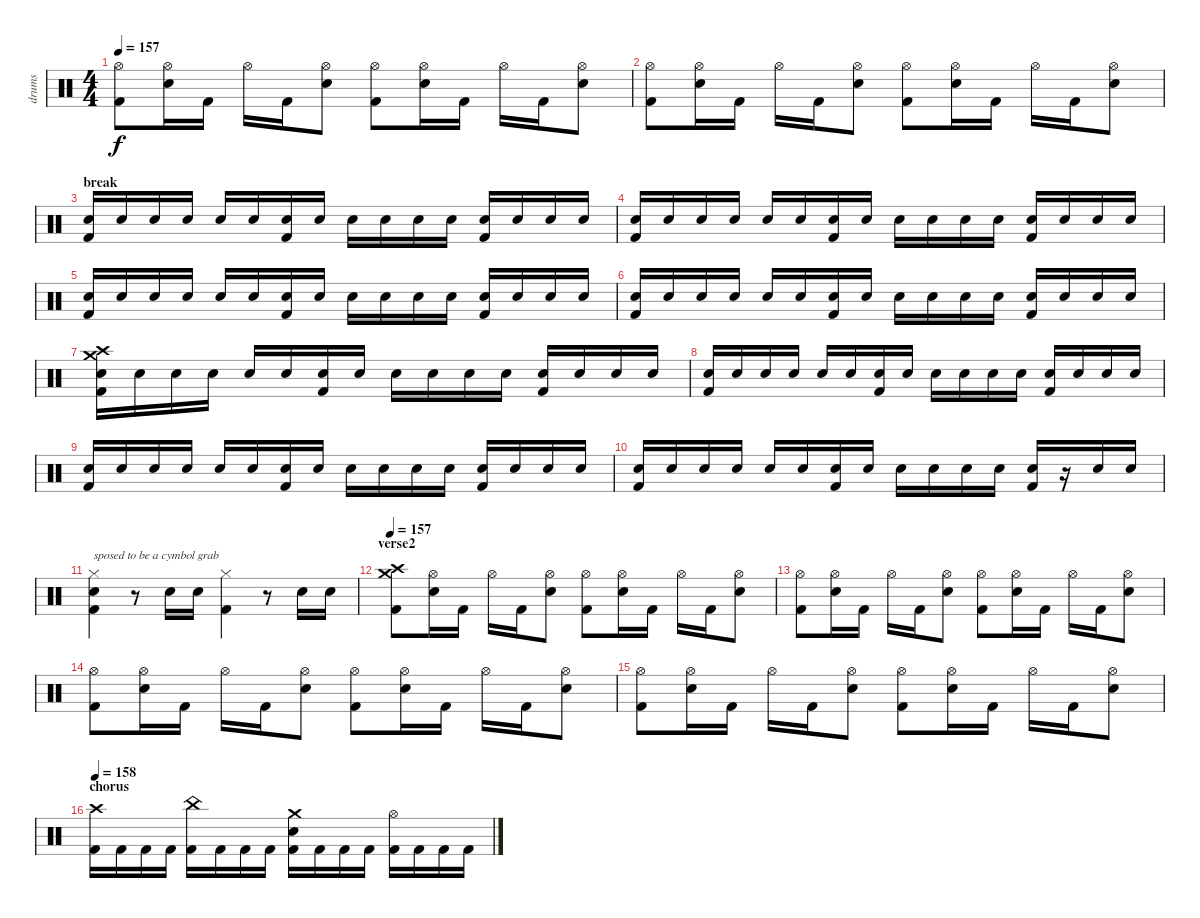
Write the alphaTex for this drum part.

\track ("drums" "drums") {instrument percussion}
\staff {score}
\articulation defaults
\ts (4 4)
\tempo 157
\clef neutral
\ks c
("Hi-Hat (open)" "Kick (hit) 2").8{dy f} ("Hi-Hat (open)" "Electric Snare (hit)").16 "Kick (hit) 2".16 "Hi-Hat (open)".16 "Kick (hit) 2".16 ("Hi-Hat (open)" "Electric Snare (hit)").8 ("Hi-Hat (open)" "Kick (hit) 2").8 ("Hi-Hat (open)" "Electric Snare (hit)").16 "Kick (hit) 2".16 "Hi-Hat (open)".16 "Kick (hit) 2".16 ("Hi-Hat (open)" "Electric Snare (hit)").8 |
("Hi-Hat (open)" "Kick (hit) 2").8 ("Hi-Hat (open)" "Electric Snare (hit)").16 "Kick (hit) 2".16 "Hi-Hat (open)".16 "Kick (hit) 2".16 ("Hi-Hat (open)" "Electric Snare (hit)").8 ("Hi-Hat (open)" "Kick (hit) 2").8 ("Hi-Hat (open)" "Electric Snare (hit)").16 "Kick (hit) 2".16 "Hi-Hat (open)".16 "Kick (hit) 2".16 ("Hi-Hat (open)" "Electric Snare (hit)").8 |
\section ("" "break")
("Electric Snare (hit)" "Kick (hit) 2").16 "Electric Snare (hit)".16 "Electric Snare (hit)".16 "Electric Snare (hit)".16 "Electric Snare (hit)".16 "Electric Snare (hit)".16 ("Electric Snare (hit)" "Kick (hit) 2").16 "Electric Snare (hit)".16 "Electric Snare (hit)".16 "Electric Snare (hit)".16 "Electric Snare (hit)".16 "Electric Snare (hit)".16 ("Electric Snare (hit)" "Kick (hit) 2").16 "Electric Snare (hit)".16 "Electric Snare (hit)".16 "Electric Snare (hit)".16 |
("Electric Snare (hit)" "Kick (hit) 2").16 "Electric Snare (hit)".16 "Electric Snare (hit)".16 "Electric Snare (hit)".16 "Electric Snare (hit)".16 "Electric Snare (hit)".16 ("Electric Snare (hit)" "Kick (hit) 2").16 "Electric Snare (hit)".16 "Electric Snare (hit)".16 "Electric Snare (hit)".16 "Electric Snare (hit)".16 "Electric Snare (hit)".16 ("Electric Snare (hit)" "Kick (hit) 2").16 "Electric Snare (hit)".16 "Electric Snare (hit)".16 "Electric Snare (hit)".16 |
("Electric Snare (hit)" "Kick (hit) 2").16 "Electric Snare (hit)".16 "Electric Snare (hit)".16 "Electric Snare (hit)".16 "Electric Snare (hit)".16 "Electric Snare (hit)".16 ("Electric Snare (hit)" "Kick (hit) 2").16 "Electric Snare (hit)".16 "Electric Snare (hit)".16 "Electric Snare (hit)".16 "Electric Snare (hit)".16 "Electric Snare (hit)".16 ("Electric Snare (hit)" "Kick (hit) 2").16 "Electric Snare (hit)".16 "Electric Snare (hit)".16 "Electric Snare (hit)".16 |
("Electric Snare (hit)" "Kick (hit) 2").16 "Electric Snare (hit)".16 "Electric Snare (hit)".16 "Electric Snare (hit)".16 "Electric Snare (hit)".16 "Electric Snare (hit)".16 ("Electric Snare (hit)" "Kick (hit) 2").16 "Electric Snare (hit)".16 "Electric Snare (hit)".16 "Electric Snare (hit)".16 "Electric Snare (hit)".16 "Electric Snare (hit)".16 ("Electric Snare (hit)" "Kick (hit) 2").16 "Electric Snare (hit)".16 "Electric Snare (hit)".16 "Electric Snare (hit)".16 |
("Crash high (hit)" "Crash medium (hit)" "Electric Snare (hit)" "Kick (hit) 2").16 "Electric Snare (hit)".16 "Electric Snare (hit)".16 "Electric Snare (hit)".16 "Electric Snare (hit)".16 "Electric Snare (hit)".16 ("Electric Snare (hit)" "Kick (hit) 2").16 "Electric Snare (hit)".16 "Electric Snare (hit)".16 "Electric Snare (hit)".16 "Electric Snare (hit)".16 "Electric Snare (hit)".16 ("Electric Snare (hit)" "Kick (hit) 2").16 "Electric Snare (hit)".16 "Electric Snare (hit)".16 "Electric Snare (hit)".16 |
("Electric Snare (hit)" "Kick (hit) 2").16 "Electric Snare (hit)".16 "Electric Snare (hit)".16 "Electric Snare (hit)".16 "Electric Snare (hit)".16 "Electric Snare (hit)".16 ("Electric Snare (hit)" "Kick (hit) 2").16 "Electric Snare (hit)".16 "Electric Snare (hit)".16 "Electric Snare (hit)".16 "Electric Snare (hit)".16 "Electric Snare (hit)".16 ("Electric Snare (hit)" "Kick (hit) 2").16 "Electric Snare (hit)".16 "Electric Snare (hit)".16 "Electric Snare (hit)".16 |
("Electric Snare (hit)" "Kick (hit) 2").16 "Electric Snare (hit)".16 "Electric Snare (hit)".16 "Electric Snare (hit)".16 "Electric Snare (hit)".16 "Electric Snare (hit)".16 ("Electric Snare (hit)" "Kick (hit) 2").16 "Electric Snare (hit)".16 "Electric Snare (hit)".16 "Electric Snare (hit)".16 "Electric Snare (hit)".16 "Electric Snare (hit)".16 ("Electric Snare (hit)" "Kick (hit) 2").16 "Electric Snare (hit)".16 "Electric Snare (hit)".16 "Electric Snare (hit)".16 |
("Electric Snare (hit)" "Kick (hit) 2").16 "Electric Snare (hit)".16 "Electric Snare (hit)".16 "Electric Snare (hit)".16 "Electric Snare (hit)".16 "Electric Snare (hit)".16 ("Electric Snare (hit)" "Kick (hit) 2").16 "Electric Snare (hit)".16 "Electric Snare (hit)".16 "Electric Snare (hit)".16 "Electric Snare (hit)".16 "Electric Snare (hit)".16 ("Electric Snare (hit)" "Kick (hit) 2").16 r.16 "Electric Snare (hit)".16 "Electric Snare (hit)".16 |
("Snare (hit)"{x} "Hi-Hat (closed)" "Kick (hit) 2").4{txt "sposed to be a cymbol grab"} r.8 "Electric Snare (hit)".16 "Electric Snare (hit)".16 ("Hi-Hat (closed)" "Kick (hit) 2").4 r.8 "Electric Snare (hit)".16 "Electric Snare (hit)".16 |
\section ("" "verse2")
\tempo 157
("Crash high (hit)" "Crash medium (hit)" "Kick (hit) 2").8 ("Hi-Hat (open)" "Electric Snare (hit)").16 "Kick (hit) 2".16 "Hi-Hat (open)".16 "Kick (hit) 2".16 ("Hi-Hat (open)" "Electric Snare (hit)").8 ("Hi-Hat (open)" "Kick (hit) 2").8 ("Hi-Hat (open)" "Electric Snare (hit)").16 "Kick (hit) 2".16 "Hi-Hat (open)".16 "Kick (hit) 2".16 ("Hi-Hat (open)" "Electric Snare (hit)").8 |
("Hi-Hat (open)" "Kick (hit) 2").8 ("Hi-Hat (open)" "Electric Snare (hit)").16 "Kick (hit) 2".16 "Hi-Hat (open)".16 "Kick (hit) 2".16 ("Hi-Hat (open)" "Electric Snare (hit)").8 ("Hi-Hat (open)" "Kick (hit) 2").8 ("Hi-Hat (open)" "Electric Snare (hit)").16 "Kick (hit) 2".16 "Hi-Hat (open)".16 "Kick (hit) 2".16 ("Hi-Hat (open)" "Electric Snare (hit)").8 |
("Hi-Hat (open)" "Kick (hit) 2").8 ("Hi-Hat (open)" "Electric Snare (hit)").16 "Kick (hit) 2".16 "Hi-Hat (open)".16 "Kick (hit) 2".16 ("Hi-Hat (open)" "Electric Snare (hit)").8 ("Hi-Hat (open)" "Kick (hit) 2").8 ("Hi-Hat (open)" "Electric Snare (hit)").16 "Kick (hit) 2".16 "Hi-Hat (open)".16 "Kick (hit) 2".16 ("Hi-Hat (open)" "Electric Snare (hit)").8 |
("Hi-Hat (open)" "Kick (hit) 2").8 ("Hi-Hat (open)" "Electric Snare (hit)").16 "Kick (hit) 2".16 "Hi-Hat (open)".16 "Kick (hit) 2".16 ("Hi-Hat (open)" "Electric Snare (hit)").8 ("Hi-Hat (open)" "Kick (hit) 2").8 ("Hi-Hat (open)" "Electric Snare (hit)").16 "Kick (hit) 2".16 "Hi-Hat (open)".16 "Kick (hit) 2".16 ("Hi-Hat (open)" "Electric Snare (hit)").8 |
\section ("" "chorus")
\tempo 158
("Crash high (hit)" "Kick (hit) 2").16 "Kick (hit) 2".16 "Kick (hit) 2".16 "Kick (hit) 2".16 ("China (hit)" "Kick (hit) 2").16 "Kick (hit) 2".16 "Kick (hit) 2".16 "Kick (hit) 2".16 ("Crash medium (hit)" "Electric Snare (hit)" "Kick (hit) 2").16 "Kick (hit) 2".16 "Kick (hit) 2".16 "Kick (hit) 2".16 ("Hi-Hat (open)" "Kick (hit) 2").16 "Kick (hit) 2".16 "Kick (hit) 2".16 "Kick (hit) 2".16
